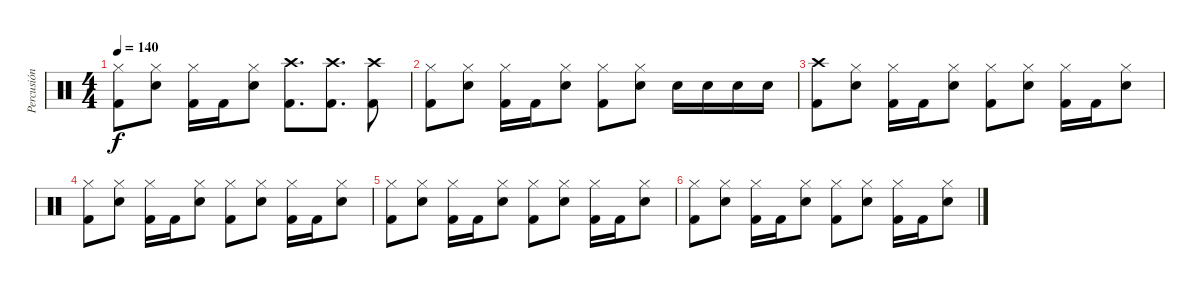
\track ("Percusión" "Percusión") {instrument percussion}
\staff {score}
\articulation defaults
\ts (4 4)
\tempo 140
\clef neutral
\ks c
("Hi-Hat (closed)" "Kick (hit) 2").8{dy f} ("Hi-Hat (closed)" "Snare (hit) 2").8 ("Hi-Hat (closed)" "Kick (hit) 2").16 "Kick (hit) 2".16 ("Hi-Hat (closed)" "Snare (hit) 2").8 ("Crash high (hit)" "Kick (hit) 2").8{d} ("Crash high (hit)" "Kick (hit) 2").8{d} ("Crash high (hit)" "Kick (hit) 2").8 |
("Hi-Hat (closed)" "Kick (hit) 2").8 ("Hi-Hat (closed)" "Snare (hit) 2").8 ("Hi-Hat (closed)" "Kick (hit) 2").16 "Kick (hit) 2".16 ("Hi-Hat (closed)" "Snare (hit) 2").8 ("Hi-Hat (closed)" "Kick (hit) 2").8 ("Hi-Hat (closed)" "Snare (hit) 2").8 "Snare (hit) 2".16 "Snare (hit) 2".16 "Snare (hit) 2".16 "Snare (hit) 2".16 |
("Crash high (hit)" "Kick (hit) 2").8 ("Hi-Hat (closed)" "Snare (hit) 2").8 ("Hi-Hat (closed)" "Kick (hit) 2").16 "Kick (hit) 2".16 ("Hi-Hat (closed)" "Snare (hit) 2").8 ("Hi-Hat (closed)" "Kick (hit) 2").8 ("Hi-Hat (closed)" "Snare (hit) 2").8 ("Hi-Hat (closed)" "Kick (hit) 2").16 "Kick (hit) 2".16 ("Hi-Hat (closed)" "Snare (hit) 2").8 |
("Hi-Hat (closed)" "Kick (hit) 2").8 ("Hi-Hat (closed)" "Snare (hit) 2").8 ("Hi-Hat (closed)" "Kick (hit) 2").16 "Kick (hit) 2".16 ("Hi-Hat (closed)" "Snare (hit) 2").8 ("Hi-Hat (closed)" "Kick (hit) 2").8 ("Hi-Hat (closed)" "Snare (hit) 2").8 ("Hi-Hat (closed)" "Kick (hit) 2").16 "Kick (hit) 2".16 ("Hi-Hat (closed)" "Snare (hit) 2").8 |
("Hi-Hat (closed)" "Kick (hit) 2").8 ("Hi-Hat (closed)" "Snare (hit) 2").8 ("Hi-Hat (closed)" "Kick (hit) 2").16 "Kick (hit) 2".16 ("Hi-Hat (closed)" "Snare (hit) 2").8 ("Hi-Hat (closed)" "Kick (hit) 2").8 ("Hi-Hat (closed)" "Snare (hit) 2").8 ("Hi-Hat (closed)" "Kick (hit) 2").16 "Kick (hit) 2".16 ("Hi-Hat (closed)" "Snare (hit) 2").8 |
("Hi-Hat (closed)" "Kick (hit) 2").8 ("Hi-Hat (closed)" "Snare (hit) 2").8 ("Hi-Hat (closed)" "Kick (hit) 2").16 "Kick (hit) 2".16 ("Hi-Hat (closed)" "Snare (hit) 2").8 ("Hi-Hat (closed)" "Kick (hit) 2").8 ("Hi-Hat (closed)" "Snare (hit) 2").8 ("Hi-Hat (closed)" "Kick (hit) 2").16 "Kick (hit) 2".16 ("Hi-Hat (closed)" "Snare (hit) 2").8
